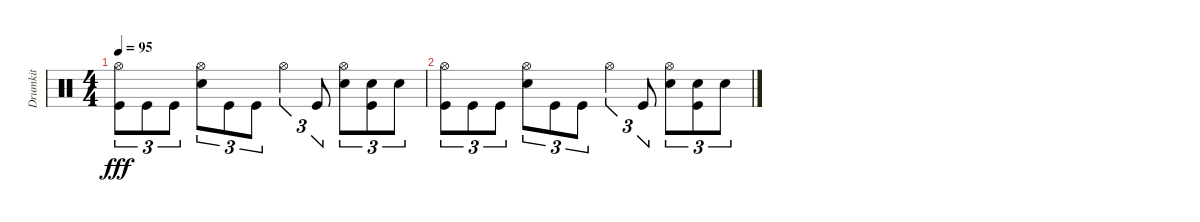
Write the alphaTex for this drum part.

\track ("Drumkit" "Drumkit") {instrument percussion}
\staff {score}
\articulation defaults
\ts (4 4)
\tempo 95
\clef neutral
\ks c
("Hi-Hat (open)" "Kick (hit)").8{tu (3 2) dy fff} "Kick (hit)".8{tu (3 2)} "Kick (hit)".8{tu (3 2)} ("Hi-Hat (open)" "Snare (hit) 2").8{tu (3 2)} "Kick (hit)".8{tu (3 2)} "Kick (hit)".8{tu (3 2)} "Hi-Hat (open)".4{tu (3 2)} "Kick (hit)".8{tu (3 2)} ("Hi-Hat (open)" "Snare (hit) 2").8{tu (3 2)} ("Snare (hit) 2" "Kick (hit)").8{tu (3 2)} "Snare (hit) 2".8{tu (3 2)} |
("Hi-Hat (open)" "Kick (hit)").8{tu (3 2)} "Kick (hit)".8{tu (3 2)} "Kick (hit)".8{tu (3 2)} ("Hi-Hat (open)" "Snare (hit) 2").8{tu (3 2)} "Kick (hit)".8{tu (3 2)} "Kick (hit)".8{tu (3 2)} "Hi-Hat (open)".4{tu (3 2)} "Kick (hit)".8{tu (3 2)} ("Hi-Hat (open)" "Snare (hit) 2").8{tu (3 2)} ("Snare (hit) 2" "Kick (hit)").8{tu (3 2)} "Snare (hit) 2".8{tu (3 2)}
